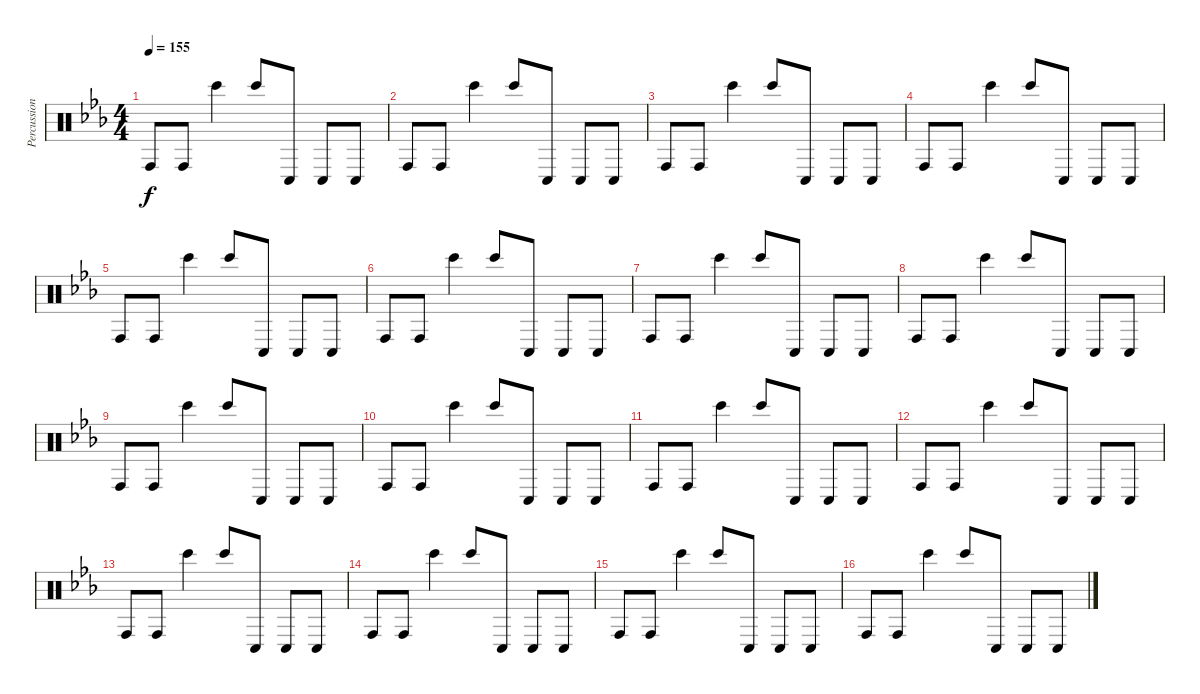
\track ("Percussion" "Percussion") {instrument percussion}
\staff {score}
\articulation defaults
\ts (4 4)
\tempo 155
\clef neutral
\ks eb "Conga high (hit)".8{dy f} "Conga high (hit)".8 "Bongo High (hit)".4 "Bongo High (hit)".8 "Conga low (hit)".8 "Conga low (hit)".8 "Conga low (hit)".8
|
"Conga high (hit)".8 "Conga high (hit)".8 "Bongo High (hit)".4 "Bongo High (hit)".8 "Conga low (hit)".8 "Conga low (hit)".8 "Conga low (hit)".8 |
"Conga high (hit)".8 "Conga high (hit)".8 "Bongo High (hit)".4 "Bongo High (hit)".8 "Conga low (hit)".8 "Conga low (hit)".8 "Conga low (hit)".8 |
"Conga high (hit)".8 "Conga high (hit)".8 "Bongo High (hit)".4 "Bongo High (hit)".8 "Conga low (hit)".8 "Conga low (hit)".8 "Conga low (hit)".8 |
"Conga high (hit)".8 "Conga high (hit)".8 "Bongo High (hit)".4 "Bongo High (hit)".8 "Conga low (hit)".8 "Conga low (hit)".8 "Conga low (hit)".8 |
"Conga high (hit)".8 "Conga high (hit)".8 "Bongo High (hit)".4 "Bongo High (hit)".8 "Conga low (hit)".8 "Conga low (hit)".8 "Conga low (hit)".8 |
"Conga high (hit)".8 "Conga high (hit)".8 "Bongo High (hit)".4 "Bongo High (hit)".8 "Conga low (hit)".8 "Conga low (hit)".8 "Conga low (hit)".8 |
"Conga high (hit)".8 "Conga high (hit)".8 "Bongo High (hit)".4 "Bongo High (hit)".8 "Conga low (hit)".8 "Conga low (hit)".8 "Conga low (hit)".8 |
"Conga high (hit)".8 "Conga high (hit)".8 "Bongo High (hit)".4 "Bongo High (hit)".8 "Conga low (hit)".8 "Conga low (hit)".8 "Conga low (hit)".8 |
"Conga high (hit)".8 "Conga high (hit)".8 "Bongo High (hit)".4 "Bongo High (hit)".8 "Conga low (hit)".8 "Conga low (hit)".8 "Conga low (hit)".8 |
"Conga high (hit)".8 "Conga high (hit)".8 "Bongo High (hit)".4 "Bongo High (hit)".8 "Conga low (hit)".8 "Conga low (hit)".8 "Conga low (hit)".8 |
"Conga high (hit)".8 "Conga high (hit)".8 "Bongo High (hit)".4 "Bongo High (hit)".8 "Conga low (hit)".8 "Conga low (hit)".8 "Conga low (hit)".8 |
"Conga high (hit)".8 "Conga high (hit)".8 "Bongo High (hit)".4 "Bongo High (hit)".8 "Conga low (hit)".8 "Conga low (hit)".8 "Conga low (hit)".8 |
"Conga high (hit)".8 "Conga high (hit)".8 "Bongo High (hit)".4 "Bongo High (hit)".8 "Conga low (hit)".8 "Conga low (hit)".8 "Conga low (hit)".8 |
"Conga high (hit)".8 "Conga high (hit)".8 "Bongo High (hit)".4 "Bongo High (hit)".8 "Conga low (hit)".8 "Conga low (hit)".8 "Conga low (hit)".8 |
"Conga high (hit)".8 "Conga high (hit)".8 "Bongo High (hit)".4 "Bongo High (hit)".8 "Conga low (hit)".8 "Conga low (hit)".8 "Conga low (hit)".8
